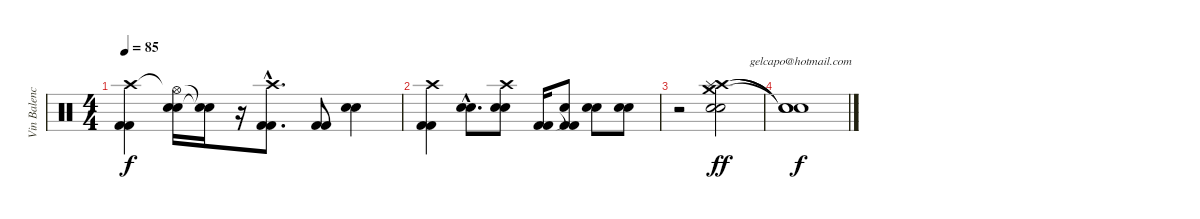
\track ("Vin Balencia (bateria)" "Vin Balenc") {instrument percussion}
\staff {score}
\articulation defaults
\chord ("gelcapo@hotmail.com") {firstfret 0}
\ts (4 4)
\tempo 85
\clef neutral
\ks c
("Crash high (hit)" "Kick (hit) 2" "Kick (hit) 2").4{dy f} ("Hi-Hat (open)"{t} "Snare (hit) 2" "Snare (hit) 2").16 ("Snare (hit)"{t} "Snare (hit)"{t}).16 r.16 ("Crash high (hit)"{hac} "Kick (hit) 2"{hac} "Kick (hit) 2"{hac}).8{d} ("Kick (hit) 2" "Kick (hit) 2").8 ("Snare (hit) 2" "Snare (hit) 2").4 |
("Crash high (hit)" "Kick (hit) 2" "Kick (hit) 2").4 ("Snare (hit) 2"{hac} "Snare (hit) 2"{hac}).8{d} ("Crash high (hit)" "Electric Snare (hit)" "Snare (hit) 2").8 ("Kick (hit) 2" "Kick (hit) 2").16 ("Snare (hit)"{t} "Kick (hit) 2" "Kick (hit) 2").8 ("Electric Snare (hit)" "Snare (hit) 2").8 ("Electric Snare (hit)" "Snare (hit) 2").8 |
r.2 ("Crash medium (hit)" "Crash high (hit)" "Splash (hit)" "Snare (hit) 2" "Snare (hit) 2").2{dy ff} |
("Snare (hit)"{t} "Snare (hit)"{t} "Snare (hit)"{t}).1{ch "gelcapo@hotmail.com" dy f volume 0}
